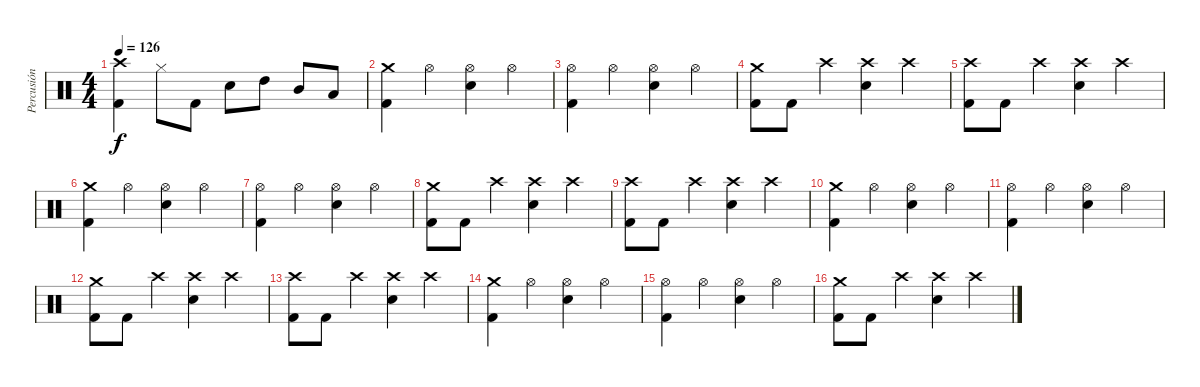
\track ("Percusión" "Percusión") {instrument percussion}
\staff {score}
\articulation defaults
\ts (4 4)
\tempo 126
\clef neutral
\ks c
("Crash high (hit)" "Kick (hit) 2").4{dy f} "Hi-Hat (closed)".8 "Kick (hit) 2".8 "Electric Snare (hit)".8 "High Tom (hit)".8 "Mid Tom (hit)".8 "Low Tom (hit)".8 |
("Crash medium (hit)" "Kick (hit) 2").4 "Hi-Hat (open)".4 ("Hi-Hat (open)" "Electric Snare (hit)").4 "Hi-Hat (open)".4 |
("Hi-Hat (open)" "Kick (hit) 2").4 "Hi-Hat (open)".4 ("Hi-Hat (open)" "Electric Snare (hit)").4 "Hi-Hat (open)".4 |
("Crash medium (hit)" "Kick (hit) 2").8 "Kick (hit) 2".8 "Crash high (hit)".4 ("Crash high (hit)" "Electric Snare (hit)").4 "Crash high (hit)".4 |
("Crash high (hit)" "Kick (hit) 2").8 "Kick (hit) 2".8 "Crash high (hit)".4 ("Crash high (hit)" "Electric Snare (hit)").4 "Crash high (hit)".4 |
("Crash medium (hit)" "Kick (hit) 2").4 "Hi-Hat (open)".4 ("Hi-Hat (open)" "Electric Snare (hit)").4 "Hi-Hat (open)".4 |
("Hi-Hat (open)" "Kick (hit) 2").4 "Hi-Hat (open)".4 ("Hi-Hat (open)" "Electric Snare (hit)").4 "Hi-Hat (open)".4 |
("Crash medium (hit)" "Kick (hit) 2").8 "Kick (hit) 2".8 "Crash high (hit)".4 ("Crash high (hit)" "Electric Snare (hit)").4 "Crash high (hit)".4 |
("Crash high (hit)" "Kick (hit) 2").8 "Kick (hit) 2".8 "Crash high (hit)".4 ("Crash high (hit)" "Electric Snare (hit)").4 "Crash high (hit)".4 |
("Crash medium (hit)" "Kick (hit) 2").4 "Hi-Hat (open)".4 ("Hi-Hat (open)" "Electric Snare (hit)").4 "Hi-Hat (open)".4 |
("Hi-Hat (open)" "Kick (hit) 2").4 "Hi-Hat (open)".4 ("Hi-Hat (open)" "Electric Snare (hit)").4 "Hi-Hat (open)".4 |
("Crash medium (hit)" "Kick (hit) 2").8 "Kick (hit) 2".8 "Crash high (hit)".4 ("Crash high (hit)" "Electric Snare (hit)").4 "Crash high (hit)".4 |
("Crash high (hit)" "Kick (hit) 2").8 "Kick (hit) 2".8 "Crash high (hit)".4 ("Crash high (hit)" "Electric Snare (hit)").4 "Crash high (hit)".4 |
("Crash medium (hit)" "Kick (hit) 2").4 "Hi-Hat (open)".4 ("Hi-Hat (open)" "Electric Snare (hit)").4 "Hi-Hat (open)".4 |
("Hi-Hat (open)" "Kick (hit) 2").4 "Hi-Hat (open)".4 ("Hi-Hat (open)" "Electric Snare (hit)").4 "Hi-Hat (open)".4 |
("Crash medium (hit)" "Kick (hit) 2").8 "Kick (hit) 2".8 "Crash high (hit)".4 ("Crash high (hit)" "Electric Snare (hit)").4 "Crash high (hit)".4
